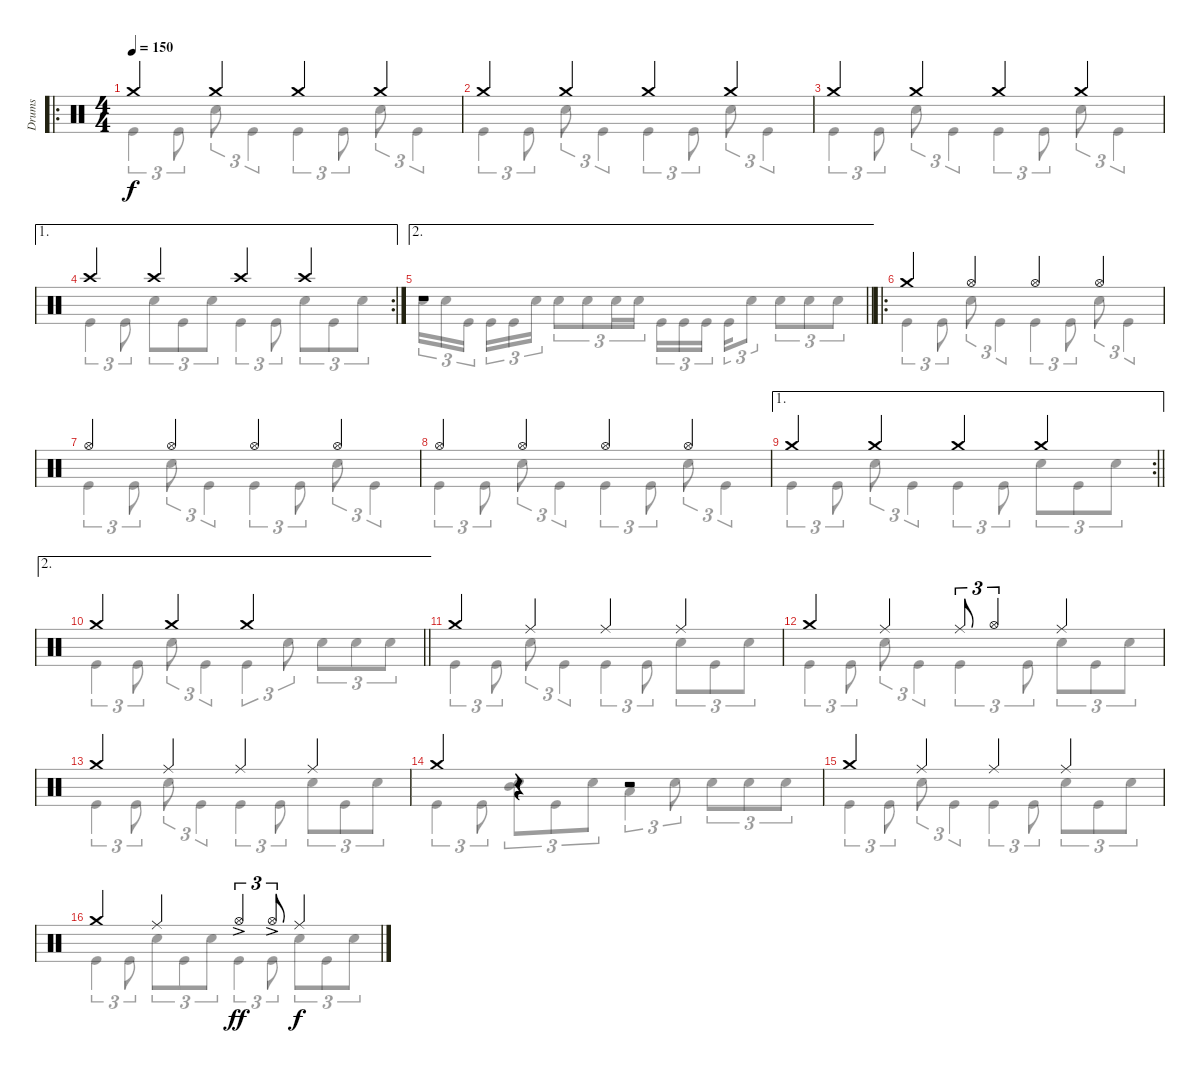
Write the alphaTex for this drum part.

\track ("Drums" "Drums") {instrument percussion}
\staff {score}
\articulation defaults
\voice
\ro
\ts (4 4)
\section ("" "")
\tempo 150
\clef neutral
\ks c "Crash medium (hit)".4{dy f volume 13} "Crash medium (hit)".4 "Crash medium (hit)".4 "Crash medium (hit)".4
|
"Crash medium (hit)".4 "Crash medium (hit)".4 "Crash medium (hit)".4 "Crash medium (hit)".4 |
"Crash medium (hit)".4 "Crash medium (hit)".4 "Crash medium (hit)".4 "Crash medium (hit)".4 |
\ae 1
\rc 2 "Crash high (hit)".4 "Crash high (hit)".4 "Crash high (hit)".4 "Crash high (hit)".4
|
\ae 2
\barLineRight lightlight
r.1 |
\ro "Crash medium (hit)".4 "Hi-Hat (open)".4 "Hi-Hat (open)".4 "Hi-Hat (open)".4
|
"Hi-Hat (open)".4 "Hi-Hat (open)".4 "Hi-Hat (open)".4 "Hi-Hat (open)".4 |
"Hi-Hat (open)".4 "Hi-Hat (open)".4 "Hi-Hat (open)".4 "Hi-Hat (open)".4 |
\ae 1
\rc 2
\barLineRight lightlight "Crash medium (hit)".4 "Crash medium (hit)".4 "Crash medium (hit)".4 "Crash medium (hit)".4
|
\ae 2
\barLineRight lightlight "Crash medium (hit)".4 "Crash medium (hit)".4 "Crash medium (hit)".2
|
\section ("" "")
"Crash medium (hit)".4 "Ride (middle)".4 "Ride (middle)".4 "Ride (middle)".4 |
"Crash medium (hit)".4 "Ride (middle)".4 "Ride (middle)".8{tu (3 2)} "Hi-Hat (open)".4{tu (3 2)} "Ride (middle)".4 |
"Crash medium (hit)".4 "Ride (middle)".4 "Ride (middle)".4 "Ride (middle)".4 |
"Crash medium (hit)".4 r.4 r.2 |
"Crash medium (hit)".4 "Ride (middle)".4 "Ride (middle)".4 "Ride (middle)".4 |
"Crash medium (hit)".4 "Ride (middle)".4 "Hi-Hat (open)"{ac}.4{tu (3 2) dy ff} "Hi-Hat (open)"{ac}.8{tu (3 2)} "Ride (middle)".4{dy f}
\voice
\clef neutral
\ottava regular
\simile none
\ks c "Kick (hit)".4{tu (3 2) dy f} "Kick (hit)".8{tu (3 2)} "Electric Snare (hit)".8{tu (3 2)} "Kick (hit)".4{tu (3 2)} "Kick (hit)".4{tu (3 2)} "Kick (hit)".8{tu (3 2)} "Electric Snare (hit)".8{tu (3 2)} "Kick (hit)".4{tu (3 2)}
|
"Kick (hit)".4{tu (3 2)} "Kick (hit)".8{tu (3 2)} "Electric Snare (hit)".8{tu (3 2)} "Kick (hit)".4{tu (3 2)} "Kick (hit)".4{tu (3 2)} "Kick (hit)".8{tu (3 2)} "Electric Snare (hit)".8{tu (3 2)} "Kick (hit)".4{tu (3 2)} |
"Kick (hit)".4{tu (3 2)} "Kick (hit)".8{tu (3 2)} "Electric Snare (hit)".8{tu (3 2)} "Kick (hit)".4{tu (3 2)} "Kick (hit)".4{tu (3 2)} "Kick (hit)".8{tu (3 2)} "Electric Snare (hit)".8{tu (3 2)} "Kick (hit)".4{tu (3 2)} |
"Kick (hit)".4{tu (3 2)} "Kick (hit)".8{tu (3 2)} "Electric Snare (hit)".8{tu (3 2)} "Kick (hit)".8{tu (3 2)} "Electric Snare (hit)".8{tu (3 2)} "Kick (hit)".4{tu (3 2)} "Kick (hit)".8{tu (3 2)} "Electric Snare (hit)".8{tu (3 2)} "Kick (hit)".8{tu (3 2)} "Electric Snare (hit)".8{tu (3 2)} |
\barLineRight lightlight "Electric Snare (hit)".16{tu (3 2)} "Electric Snare (hit)".16{tu (3 2)} "Kick (hit)".16{tu (3 2) beam splitsecondary} "Kick (hit)".16{tu (3 2)} "Kick (hit)".16{tu (3 2)} "Electric Snare (hit)".16{tu (3 2)} "Electric Snare (hit)".8{tu (3 2)} "Electric Snare (hit)".8{tu (3 2)} "Electric Snare (hit)".16{tu (3 2)} "Electric Snare (hit)".16{tu (3 2)} "Kick (hit)".16{tu (3 2)} "Kick (hit)".16{tu (3 2)} "Kick (hit)".16{tu (3 2) beam splitsecondary} "Kick (hit)".16{tu (3 2)} "Electric Snare (hit)".8{tu (3 2)} "Electric Snare (hit)".8{tu (3 2)} "Electric Snare (hit)".8{tu (3 2)} "Electric Snare (hit)".8{tu (3 2)}
|
"Kick (hit)".4{tu (3 2)} "Kick (hit)".8{tu (3 2)} "Electric Snare (hit)".8{tu (3 2)} "Kick (hit)".4{tu (3 2)} "Kick (hit)".4{tu (3 2)} "Kick (hit)".8{tu (3 2)} "Electric Snare (hit)".8{tu (3 2)} "Kick (hit)".4{tu (3 2)} |
"Kick (hit)".4{tu (3 2)} "Kick (hit)".8{tu (3 2)} "Electric Snare (hit)".8{tu (3 2)} "Kick (hit)".4{tu (3 2)} "Kick (hit)".4{tu (3 2)} "Kick (hit)".8{tu (3 2)} "Electric Snare (hit)".8{tu (3 2)} "Kick (hit)".4{tu (3 2)} |
"Kick (hit)".4{tu (3 2)} "Kick (hit)".8{tu (3 2)} "Electric Snare (hit)".8{tu (3 2)} "Kick (hit)".4{tu (3 2)} "Kick (hit)".4{tu (3 2)} "Kick (hit)".8{tu (3 2)} "Electric Snare (hit)".8{tu (3 2)} "Kick (hit)".4{tu (3 2)} |
\barLineRight lightlight "Kick (hit)".4{tu (3 2)} "Kick (hit)".8{tu (3 2)} "Electric Snare (hit)".8{tu (3 2)} "Kick (hit)".4{tu (3 2)} "Kick (hit)".4{tu (3 2)} "Kick (hit)".8{tu (3 2)} "Electric Snare (hit)".8{tu (3 2)} "Kick (hit)".8{tu (3 2)} "Electric Snare (hit)".8{tu (3 2)}
|
\barLineRight lightlight "Kick (hit)".4{tu (3 2)} "Kick (hit)".8{tu (3 2)} "Electric Snare (hit)".8{tu (3 2)} "Kick (hit)".4{tu (3 2)} "Kick (hit)".4{tu (3 2)} "Electric Snare (hit)".8{tu (3 2)} "Electric Snare (hit)".8{tu (3 2)} "Electric Snare (hit)".8{tu (3 2)} "Electric Snare (hit)".8{tu (3 2)}
|
"Kick (hit)".4{tu (3 2)} "Kick (hit)".8{tu (3 2)} "Electric Snare (hit)".8{tu (3 2)} "Kick (hit)".4{tu (3 2)} "Kick (hit)".4{tu (3 2)} "Kick (hit)".8{tu (3 2)} "Electric Snare (hit)".8{tu (3 2)} "Kick (hit)".8{tu (3 2)} "Electric Snare (hit)".8{tu (3 2)} |
"Kick (hit)".4{tu (3 2)} "Kick (hit)".8{tu (3 2)} "Electric Snare (hit)".8{tu (3 2)} "Kick (hit)".4{tu (3 2)} "Kick (hit)".4{tu (3 2)} "Kick (hit)".8{tu (3 2)} "Electric Snare (hit)".8{tu (3 2)} "Kick (hit)".8{tu (3 2)} "Electric Snare (hit)".8{tu (3 2)} |
"Kick (hit)".4{tu (3 2)} "Kick (hit)".8{tu (3 2)} "Electric Snare (hit)".8{tu (3 2)} "Kick (hit)".4{tu (3 2)} "Kick (hit)".4{tu (3 2)} "Kick (hit)".8{tu (3 2)} "Electric Snare (hit)".8{tu (3 2)} "Kick (hit)".8{tu (3 2)} "Electric Snare (hit)".8{tu (3 2)} |
"Kick (hit)".4{tu (3 2)} "Kick (hit)".8{tu (3 2)} ("Mid Tom (hit)" "Electric Snare (hit)").8{tu (3 2)} "Kick (hit)".8{tu (3 2)} "Electric Snare (hit)".8{tu (3 2)} "Low Tom (hit)".4{tu (3 2)} "Electric Snare (hit)".8{tu (3 2)} "Electric Snare (hit)".8{tu (3 2)} "Electric Snare (hit)".8{tu (3 2)} "Electric Snare (hit)".8{tu (3 2)} |
"Kick (hit)".4{tu (3 2)} "Kick (hit)".8{tu (3 2)} "Electric Snare (hit)".8{tu (3 2)} "Kick (hit)".4{tu (3 2)} "Kick (hit)".4{tu (3 2)} "Kick (hit)".8{tu (3 2)} "Electric Snare (hit)".8{tu (3 2)} "Kick (hit)".8{tu (3 2)} "Electric Snare (hit)".8{tu (3 2)} |
"Kick (hit)".4{tu (3 2)} "Kick (hit)".8{tu (3 2)} "Electric Snare (hit)".8{tu (3 2)} "Kick (hit)".8{tu (3 2)} "Electric Snare (hit)".8{tu (3 2)} "Kick (hit)".4{tu (3 2)} "Kick (hit)".8{tu (3 2)} "Electric Snare (hit)".8{tu (3 2)} "Kick (hit)".8{tu (3 2)} "Electric Snare (hit)".8{tu (3 2)}
